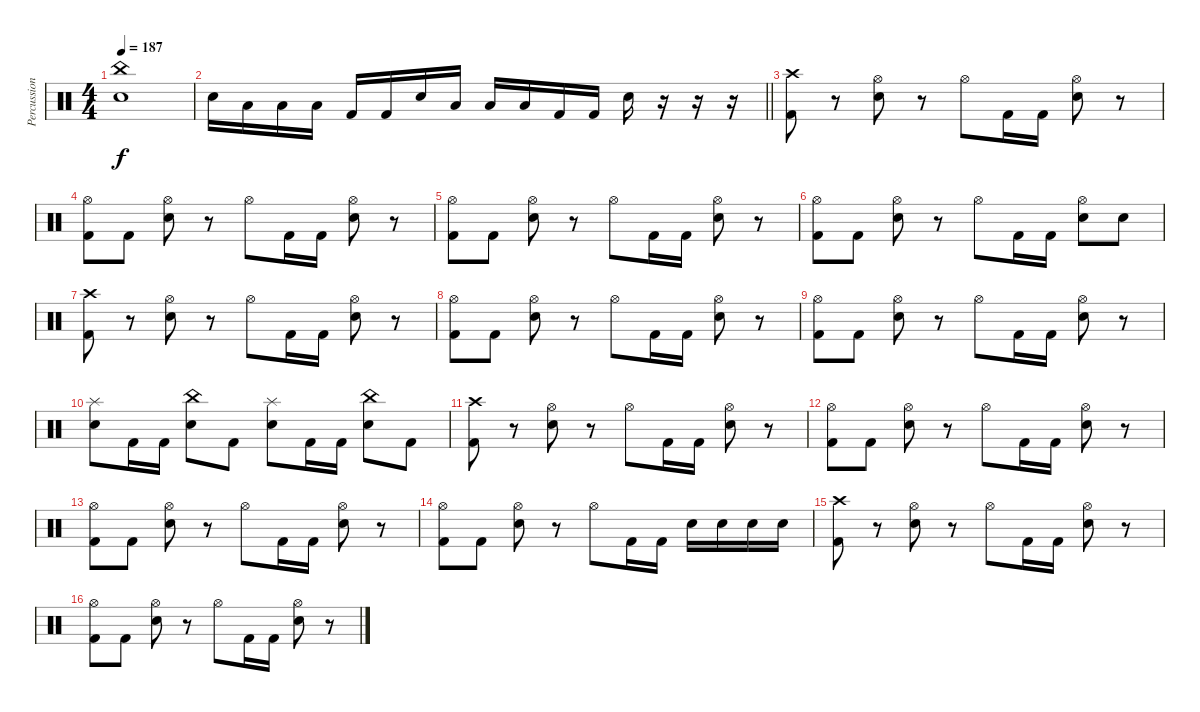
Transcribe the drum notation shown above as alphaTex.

\track ("Percussion" "Percussion") {instrument percussion}
\staff {score}
\articulation defaults
\ts (4 4)
\tempo 187
\clef neutral
\ks c
("China (hit)" "Snare (hit) 2").1{dy f} |
\barLineRight lightlight "Snare (hit) 2".16 "Low Tom (hit)".16 "Low Tom (hit)".16 "Low Tom (hit)".16 "Kick (hit) 2".16 "Kick (hit) 2".16 "Snare (hit) 2".16 "Low Tom (hit)".16 "Low Tom (hit)".16 "Low Tom (hit)".16 "Kick (hit) 2".16 "Kick (hit) 2".16 "Snare (hit) 2".16
r.16 r.16 r.16 |
\section ("" "")
("Crash high (hit)" "Kick (hit) 2").8 r.8 ("Hi-Hat (open)" "Snare (hit) 2").8 r.8 "Hi-Hat (open)".8 "Kick (hit) 2".16 "Kick (hit) 2".16 ("Hi-Hat (open)" "Snare (hit) 2").8 r.8 |
("Hi-Hat (open)" "Kick (hit) 2").8 "Kick (hit) 2".8 ("Hi-Hat (open)" "Snare (hit) 2").8 r.8 "Hi-Hat (open)".8 "Kick (hit) 2".16 "Kick (hit) 2".16 ("Hi-Hat (open)" "Snare (hit) 2").8 r.8 |
("Hi-Hat (open)" "Kick (hit) 2").8 "Kick (hit) 2".8 ("Hi-Hat (open)" "Snare (hit) 2").8 r.8 "Hi-Hat (open)".8 "Kick (hit) 2".16 "Kick (hit) 2".16 ("Hi-Hat (open)" "Snare (hit) 2").8 r.8 |
("Hi-Hat (open)" "Kick (hit) 2").8 "Kick (hit) 2".8 ("Hi-Hat (open)" "Snare (hit) 2").8 r.8 "Hi-Hat (open)".8 "Kick (hit) 2".16 "Kick (hit) 2".16 ("Hi-Hat (open)" "Snare (hit) 2").8 "Snare (hit) 2".8 |
("Crash high (hit)" "Kick (hit) 2").8 r.8 ("Hi-Hat (open)" "Snare (hit) 2").8 r.8 "Hi-Hat (open)".8 "Kick (hit) 2".16 "Kick (hit) 2".16 ("Hi-Hat (open)" "Snare (hit) 2").8 r.8 |
("Hi-Hat (open)" "Kick (hit) 2").8 "Kick (hit) 2".8 ("Hi-Hat (open)" "Snare (hit) 2").8 r.8 "Hi-Hat (open)".8 "Kick (hit) 2".16 "Kick (hit) 2".16 ("Hi-Hat (open)" "Snare (hit) 2").8 r.8 |
("Hi-Hat (open)" "Kick (hit) 2").8 "Kick (hit) 2".8 ("Hi-Hat (open)" "Snare (hit) 2").8 r.8 "Hi-Hat (open)".8 "Kick (hit) 2".16 "Kick (hit) 2".16 ("Hi-Hat (open)" "Snare (hit) 2").8 r.8 |
("Splash (hit)" "Snare (hit) 2").8 "Kick (hit) 2".16 "Kick (hit) 2".16 ("China (hit)" "Snare (hit) 2").8 "Kick (hit) 2".8 ("Splash (hit)" "Snare (hit) 2").8 "Kick (hit) 2".16 "Kick (hit) 2".16 ("China (hit)" "Snare (hit) 2").8 "Kick (hit) 2".8 |
("Crash high (hit)" "Kick (hit) 2").8 r.8 ("Hi-Hat (open)" "Snare (hit) 2").8 r.8 "Hi-Hat (open)".8 "Kick (hit) 2".16 "Kick (hit) 2".16 ("Hi-Hat (open)" "Snare (hit) 2").8 r.8 |
("Hi-Hat (open)" "Kick (hit) 2").8 "Kick (hit) 2".8 ("Hi-Hat (open)" "Snare (hit) 2").8 r.8 "Hi-Hat (open)".8 "Kick (hit) 2".16 "Kick (hit) 2".16 ("Hi-Hat (open)" "Snare (hit) 2").8 r.8 |
("Hi-Hat (open)" "Kick (hit) 2").8 "Kick (hit) 2".8 ("Hi-Hat (open)" "Snare (hit) 2").8 r.8 "Hi-Hat (open)".8 "Kick (hit) 2".16 "Kick (hit) 2".16 ("Hi-Hat (open)" "Snare (hit) 2").8 r.8 |
("Hi-Hat (open)" "Kick (hit) 2").8 "Kick (hit) 2".8 ("Hi-Hat (open)" "Snare (hit) 2").8 r.8 "Hi-Hat (open)".8 "Kick (hit) 2".16 "Kick (hit) 2".16 "Snare (hit) 2".16 "Snare (hit) 2".16 "Snare (hit) 2".16 "Snare (hit) 2".16 |
("Crash high (hit)" "Kick (hit) 2").8 r.8 ("Hi-Hat (open)" "Snare (hit) 2").8 r.8 "Hi-Hat (open)".8 "Kick (hit) 2".16 "Kick (hit) 2".16 ("Hi-Hat (open)" "Snare (hit) 2").8 r.8 |
("Hi-Hat (open)" "Kick (hit) 2").8 "Kick (hit) 2".8 ("Hi-Hat (open)" "Snare (hit) 2").8 r.8 "Hi-Hat (open)".8 "Kick (hit) 2".16 "Kick (hit) 2".16 ("Hi-Hat (open)" "Snare (hit) 2").8 r.8
